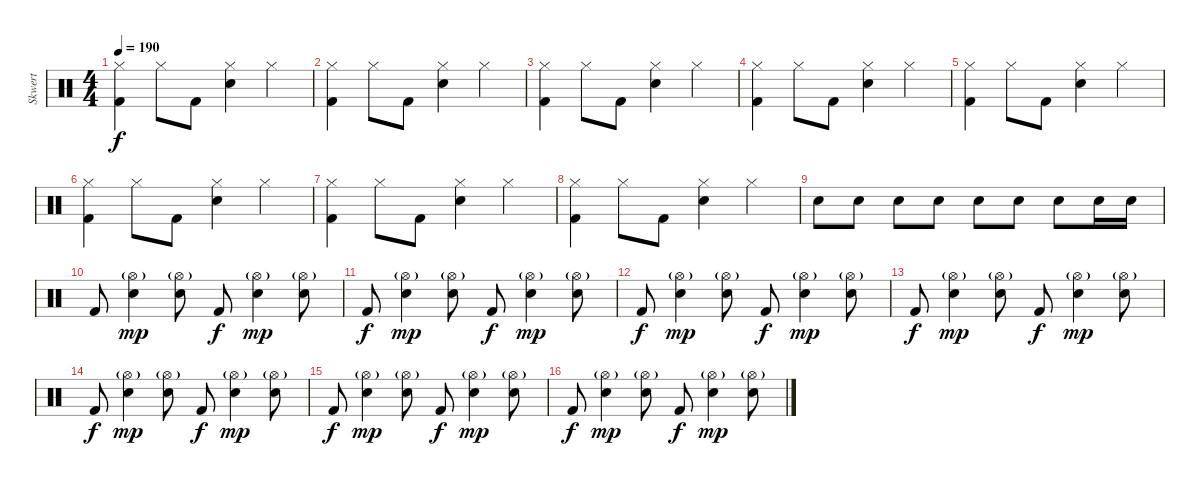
\track ("Skwert" "Skwert") {instrument percussion}
\staff {score}
\articulation defaults
\ts (4 4)
\tempo 190
\clef neutral
\ks c
("Hi-Hat (closed)" "Kick (hit) 2").4{dy f} "Hi-Hat (closed)".8 "Kick (hit) 2".8 ("Hi-Hat (closed)" "Electric Snare (hit)").4 "Hi-Hat (closed)".4 |
("Hi-Hat (closed)" "Kick (hit) 2").4 "Hi-Hat (closed)".8 "Kick (hit) 2".8 ("Hi-Hat (closed)" "Electric Snare (hit)").4 "Hi-Hat (closed)".4 |
("Hi-Hat (closed)" "Kick (hit) 2").4 "Hi-Hat (closed)".8 "Kick (hit) 2".8 ("Hi-Hat (closed)" "Electric Snare (hit)").4 "Hi-Hat (closed)".4 |
("Hi-Hat (closed)" "Kick (hit) 2").4 "Hi-Hat (closed)".8 "Kick (hit) 2".8 ("Hi-Hat (closed)" "Electric Snare (hit)").4 "Hi-Hat (closed)".4 |
("Hi-Hat (closed)" "Kick (hit) 2").4 "Hi-Hat (closed)".8 "Kick (hit) 2".8 ("Hi-Hat (closed)" "Electric Snare (hit)").4 "Hi-Hat (closed)".4 |
("Hi-Hat (closed)" "Kick (hit) 2").4 "Hi-Hat (closed)".8 "Kick (hit) 2".8 ("Hi-Hat (closed)" "Electric Snare (hit)").4 "Hi-Hat (closed)".4 |
("Hi-Hat (closed)" "Kick (hit) 2").4 "Hi-Hat (closed)".8 "Kick (hit) 2".8 ("Hi-Hat (closed)" "Electric Snare (hit)").4 "Hi-Hat (closed)".4 |
("Hi-Hat (closed)" "Kick (hit) 2").4 "Hi-Hat (closed)".8 "Kick (hit) 2".8 ("Hi-Hat (closed)" "Electric Snare (hit)").4 "Hi-Hat (closed)".4 |
"Electric Snare (hit)".8 "Electric Snare (hit)".8 "Electric Snare (hit)".8 "Electric Snare (hit)".8 "Electric Snare (hit)".8 "Electric Snare (hit)".8 "Electric Snare (hit)".8 "Electric Snare (hit)".16 "Electric Snare (hit)".16 |
"Kick (hit) 2".8 ("Hi-Hat (open)"{g} "Electric Snare (hit)").4{dy mp} ("Hi-Hat (open)"{g} "Electric Snare (hit)").8 "Kick (hit) 2".8{dy f} ("Hi-Hat (open)"{g} "Electric Snare (hit)").4{dy mp} ("Hi-Hat (open)"{g} "Electric Snare (hit)").8 |
"Kick (hit) 2".8{dy f} ("Hi-Hat (open)"{g} "Electric Snare (hit)").4{dy mp} ("Hi-Hat (open)"{g} "Electric Snare (hit)").8 "Kick (hit) 2".8{dy f} ("Hi-Hat (open)"{g} "Electric Snare (hit)").4{dy mp} ("Hi-Hat (open)"{g} "Electric Snare (hit)").8 |
"Kick (hit) 2".8{dy f} ("Hi-Hat (open)"{g} "Electric Snare (hit)").4{dy mp} ("Hi-Hat (open)"{g} "Electric Snare (hit)").8 "Kick (hit) 2".8{dy f} ("Hi-Hat (open)"{g} "Electric Snare (hit)").4{dy mp} ("Hi-Hat (open)"{g} "Electric Snare (hit)").8 |
"Kick (hit) 2".8{dy f} ("Hi-Hat (open)"{g} "Electric Snare (hit)").4{dy mp} ("Hi-Hat (open)"{g} "Electric Snare (hit)").8 "Kick (hit) 2".8{dy f} ("Hi-Hat (open)"{g} "Electric Snare (hit)").4{dy mp} ("Hi-Hat (open)"{g} "Electric Snare (hit)").8 |
"Kick (hit) 2".8{dy f} ("Hi-Hat (open)"{g} "Electric Snare (hit)").4{dy mp} ("Hi-Hat (open)"{g} "Electric Snare (hit)").8 "Kick (hit) 2".8{dy f} ("Hi-Hat (open)"{g} "Electric Snare (hit)").4{dy mp} ("Hi-Hat (open)"{g} "Electric Snare (hit)").8 |
"Kick (hit) 2".8{dy f} ("Hi-Hat (open)"{g} "Electric Snare (hit)").4{dy mp} ("Hi-Hat (open)"{g} "Electric Snare (hit)").8 "Kick (hit) 2".8{dy f} ("Hi-Hat (open)"{g} "Electric Snare (hit)").4{dy mp} ("Hi-Hat (open)"{g} "Electric Snare (hit)").8 |
"Kick (hit) 2".8{dy f} ("Hi-Hat (open)"{g} "Electric Snare (hit)").4{dy mp} ("Hi-Hat (open)"{g} "Electric Snare (hit)").8 "Kick (hit) 2".8{dy f} ("Hi-Hat (open)"{g} "Electric Snare (hit)").4{dy mp} ("Hi-Hat (open)"{g} "Electric Snare (hit)").8
